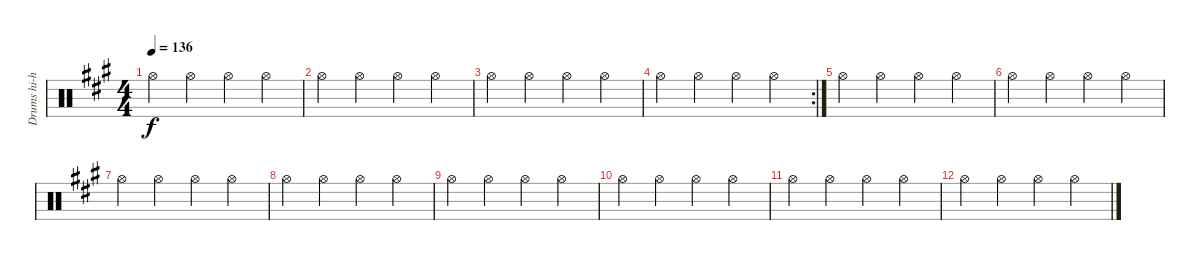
\track ("Drums hi-hat" "Drums hi-h") {instrument percussion}
\staff {score}
\articulation defaults
\ts (4 4)
\tempo 136
\clef neutral
\ks a "Hi-Hat (open)".4{dy f} "Hi-Hat (open)".4 "Hi-Hat (open)".4 "Hi-Hat (open)".4
|
"Hi-Hat (open)".4 "Hi-Hat (open)".4 "Hi-Hat (open)".4 "Hi-Hat (open)".4 |
"Hi-Hat (open)".4 "Hi-Hat (open)".4 "Hi-Hat (open)".4 "Hi-Hat (open)".4 |
\rc 2 "Hi-Hat (open)".4 "Hi-Hat (open)".4 "Hi-Hat (open)".4 "Hi-Hat (open)".4
|
"Hi-Hat (open)".4 "Hi-Hat (open)".4 "Hi-Hat (open)".4 "Hi-Hat (open)".4 |
"Hi-Hat (open)".4 "Hi-Hat (open)".4 "Hi-Hat (open)".4 "Hi-Hat (open)".4 |
"Hi-Hat (open)".4 "Hi-Hat (open)".4 "Hi-Hat (open)".4 "Hi-Hat (open)".4 |
"Hi-Hat (open)".4 "Hi-Hat (open)".4 "Hi-Hat (open)".4 "Hi-Hat (open)".4 |
"Hi-Hat (open)".4 "Hi-Hat (open)".4 "Hi-Hat (open)".4 "Hi-Hat (open)".4 |
"Hi-Hat (open)".4 "Hi-Hat (open)".4 "Hi-Hat (open)".4 "Hi-Hat (open)".4 |
"Hi-Hat (open)".4 "Hi-Hat (open)".4 "Hi-Hat (open)".4 "Hi-Hat (open)".4 |
"Hi-Hat (open)".4 "Hi-Hat (open)".4 "Hi-Hat (open)".4 "Hi-Hat (open)".4
